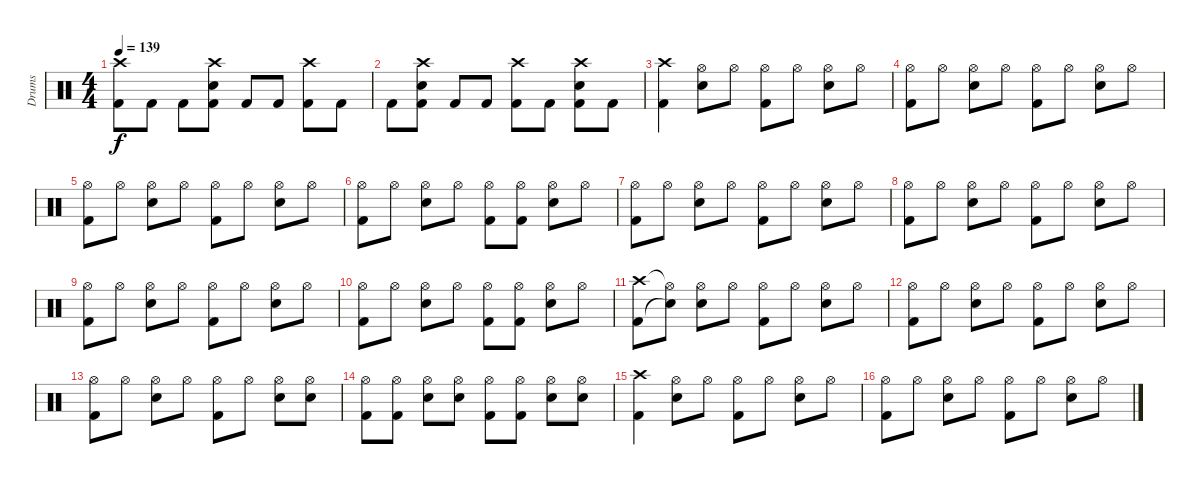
\track ("Drums" "Drums") {instrument percussion}
\staff {score}
\articulation defaults
\ts (4 4)
\tempo 139
\clef neutral
\ks c
("Crash high (hit)" "Kick (hit) 2").8{dy f} "Kick (hit) 2".8 "Kick (hit) 2".8 ("Crash high (hit)" "Kick (hit) 2" "Electric Snare (hit)").8 "Kick (hit) 2".8 "Kick (hit) 2".8 ("Crash high (hit)" "Kick (hit) 2").8 "Kick (hit) 2".8 |
"Kick (hit) 2".8 ("Crash high (hit)" "Kick (hit) 2" "Electric Snare (hit)").8 "Kick (hit) 2".8 "Kick (hit) 2".8 ("Crash high (hit)" "Kick (hit) 2").8 "Kick (hit) 2".8 ("Crash high (hit)" "Kick (hit) 2" "Electric Snare (hit)").8 "Kick (hit) 2".8 |
("Crash high (hit)" "Kick (hit) 2").4 ("Hi-Hat (open)" "Electric Snare (hit)").8 "Hi-Hat (open)".8 ("Hi-Hat (open)" "Kick (hit) 2").8 "Hi-Hat (open)".8 ("Hi-Hat (open)" "Electric Snare (hit)").8 "Hi-Hat (open)".8 |
("Hi-Hat (open)" "Kick (hit) 2").8 "Hi-Hat (open)".8 ("Hi-Hat (open)" "Electric Snare (hit)").8 "Hi-Hat (open)".8 ("Hi-Hat (open)" "Kick (hit) 2").8 "Hi-Hat (open)".8 ("Hi-Hat (open)" "Electric Snare (hit)").8 "Hi-Hat (open)".8 |
("Hi-Hat (open)" "Kick (hit) 2").8 "Hi-Hat (open)".8 ("Hi-Hat (open)" "Electric Snare (hit)").8 "Hi-Hat (open)".8 ("Hi-Hat (open)" "Kick (hit) 2").8 "Hi-Hat (open)".8 ("Hi-Hat (open)" "Electric Snare (hit)").8 "Hi-Hat (open)".8 |
("Hi-Hat (open)" "Kick (hit) 2").8 "Hi-Hat (open)".8 ("Hi-Hat (open)" "Electric Snare (hit)").8 "Hi-Hat (open)".8 ("Hi-Hat (open)" "Kick (hit) 2").8 ("Hi-Hat (open)" "Kick (hit) 2").8 ("Hi-Hat (open)" "Electric Snare (hit)").8 "Hi-Hat (open)".8 |
("Hi-Hat (open)" "Kick (hit) 2").8 "Hi-Hat (open)".8 ("Hi-Hat (open)" "Electric Snare (hit)").8 "Hi-Hat (open)".8 ("Hi-Hat (open)" "Kick (hit) 2").8 "Hi-Hat (open)".8 ("Hi-Hat (open)" "Electric Snare (hit)").8 "Hi-Hat (open)".8 |
("Hi-Hat (open)" "Kick (hit) 2").8 "Hi-Hat (open)".8 ("Hi-Hat (open)" "Electric Snare (hit)").8 "Hi-Hat (open)".8 ("Hi-Hat (open)" "Kick (hit) 2").8 "Hi-Hat (open)".8 ("Hi-Hat (open)" "Electric Snare (hit)").8 "Hi-Hat (open)".8 |
("Hi-Hat (open)" "Kick (hit) 2").8 "Hi-Hat (open)".8 ("Hi-Hat (open)" "Electric Snare (hit)").8 "Hi-Hat (open)".8 ("Hi-Hat (open)" "Kick (hit) 2").8 "Hi-Hat (open)".8 ("Hi-Hat (open)" "Electric Snare (hit)").8 "Hi-Hat (open)".8 |
("Hi-Hat (open)" "Kick (hit) 2").8 "Hi-Hat (open)".8 ("Hi-Hat (open)" "Electric Snare (hit)").8 "Hi-Hat (open)".8 ("Hi-Hat (open)" "Kick (hit) 2").8 ("Hi-Hat (open)" "Kick (hit) 2").8 ("Hi-Hat (open)" "Electric Snare (hit)").8 "Hi-Hat (open)".8 |
("Crash high (hit)" "Kick (hit) 2").8 ("Hi-Hat (open)"{t} "Snare (hit)"{t}).8 ("Hi-Hat (open)" "Electric Snare (hit)").8 "Hi-Hat (open)".8 ("Hi-Hat (open)" "Kick (hit) 2").8 "Hi-Hat (open)".8 ("Hi-Hat (open)" "Electric Snare (hit)").8 "Hi-Hat (open)".8 |
("Hi-Hat (open)" "Kick (hit) 2").8 "Hi-Hat (open)".8 ("Hi-Hat (open)" "Electric Snare (hit)").8 "Hi-Hat (open)".8 ("Hi-Hat (open)" "Kick (hit) 2").8 "Hi-Hat (open)".8 ("Hi-Hat (open)" "Electric Snare (hit)").8 "Hi-Hat (open)".8 |
("Hi-Hat (open)" "Kick (hit) 2").8 "Hi-Hat (open)".8 ("Hi-Hat (open)" "Electric Snare (hit)").8 "Hi-Hat (open)".8 ("Hi-Hat (open)" "Kick (hit) 2").8 "Hi-Hat (open)".8 ("Hi-Hat (open)" "Electric Snare (hit)").8 ("Hi-Hat (open)" "Electric Snare (hit)").8 |
("Hi-Hat (open)" "Kick (hit) 2").8 ("Hi-Hat (open)" "Kick (hit) 2").8 ("Hi-Hat (open)" "Electric Snare (hit)").8 ("Hi-Hat (open)" "Electric Snare (hit)").8 ("Hi-Hat (open)" "Kick (hit) 2").8 ("Hi-Hat (open)" "Kick (hit) 2").8 ("Hi-Hat (open)" "Electric Snare (hit)").8 ("Hi-Hat (open)" "Electric Snare (hit)").8 |
("Crash high (hit)" "Kick (hit) 2").4 ("Hi-Hat (open)" "Electric Snare (hit)").8 "Hi-Hat (open)".8 ("Hi-Hat (open)" "Kick (hit) 2").8 "Hi-Hat (open)".8 ("Hi-Hat (open)" "Electric Snare (hit)").8 "Hi-Hat (open)".8 |
("Hi-Hat (open)" "Kick (hit) 2").8 "Hi-Hat (open)".8 ("Hi-Hat (open)" "Electric Snare (hit)").8 "Hi-Hat (open)".8 ("Hi-Hat (open)" "Kick (hit) 2").8 "Hi-Hat (open)".8 ("Hi-Hat (open)" "Electric Snare (hit)").8 "Hi-Hat (open)".8
